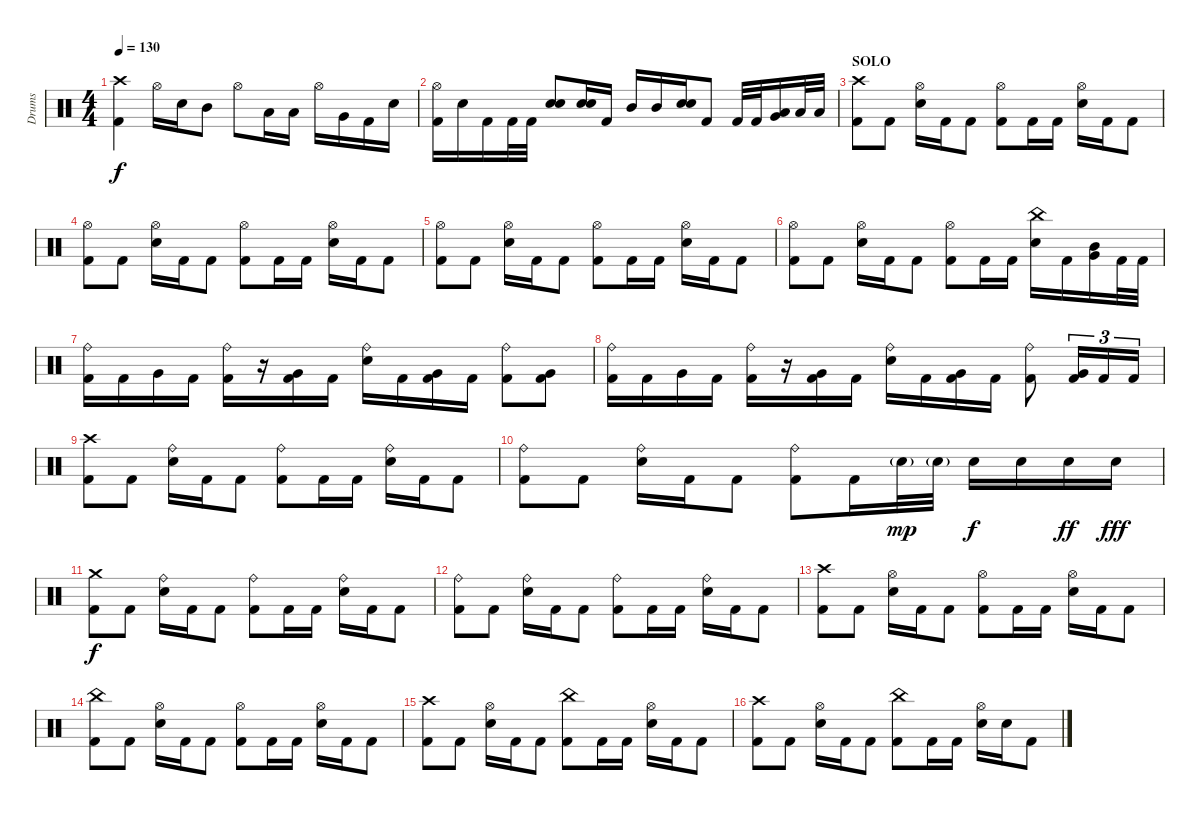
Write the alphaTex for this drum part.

\track ("Drums" "Drums") {instrument percussion}
\staff {score}
\articulation defaults
\ts (4 4)
\tempo 130
\clef neutral
\ks c
("Crash high (hit)" "Kick (hit) 2").4{dy f} "Hi-Hat (open)".16 "Electric Snare (hit)".16 "Mid Tom (hit)".8 "Hi-Hat (open)".8 "Low Tom (hit)".16 "Low Tom (hit)".16 "Hi-Hat (open)".16 "Very Low Tom (hit)".16 "Kick (hit) 2".16 "Electric Snare (hit)".16 |
("Hi-Hat (open)" "Kick (hit) 2").16 "Electric Snare (hit)".16 "Kick (hit) 2".16 "Kick (hit) 2".32 "Kick (hit) 2".32 ("Electric Snare (hit)" "Electric Snare (hit)").8{bd 120} ("Electric Snare (hit)" "Electric Snare (hit)").16{bd 120} "Kick (hit) 2".16 "Mid Tom (hit)".16 "Mid Tom (hit)".16 ("Electric Snare (hit)" "Electric Snare (hit)").16{bd 120} "Kick (hit) 2".8 "Kick (hit) 2".32 "Kick (hit) 2".32 ("Very Low Tom (hit)" "Low Tom (hit)").16{bd 120} "Low Floor Tom (hit)".32 "Low Floor Tom (hit)".32 |
\section ("" "SOLO")
("Crash high (hit)" "Kick (hit) 2").8 "Kick (hit) 2".8 ("Hi-Hat (open)" "Electric Snare (hit)").16 "Kick (hit) 2".16 "Kick (hit) 2".8 ("Hi-Hat (open)" "Kick (hit) 2").8 "Kick (hit) 2".16 "Kick (hit) 2".16 ("Hi-Hat (open)" "Electric Snare (hit)").16 "Kick (hit) 2".16 "Kick (hit) 2".8 |
("Hi-Hat (open)" "Kick (hit) 2").8 "Kick (hit) 2".8 ("Hi-Hat (open)" "Electric Snare (hit)").16 "Kick (hit) 2".16 "Kick (hit) 2".8 ("Hi-Hat (open)" "Kick (hit) 2").8 "Kick (hit) 2".16 "Kick (hit) 2".16 ("Hi-Hat (open)" "Electric Snare (hit)").16 "Kick (hit) 2".16 "Kick (hit) 2".8 |
("Hi-Hat (open)" "Kick (hit) 2").8 "Kick (hit) 2".8 ("Hi-Hat (open)" "Electric Snare (hit)").16 "Kick (hit) 2".16 "Kick (hit) 2".8 ("Hi-Hat (open)" "Kick (hit) 2").8 "Kick (hit) 2".16 "Kick (hit) 2".16 ("Hi-Hat (open)" "Electric Snare (hit)").16 "Kick (hit) 2".16 "Kick (hit) 2".8 |
("Hi-Hat (open)" "Kick (hit) 2").8 "Kick (hit) 2".8 ("Hi-Hat (open)" "Electric Snare (hit)").16 "Kick (hit) 2".16 "Kick (hit) 2".8 ("Hi-Hat (open)" "Kick (hit) 2").8 "Kick (hit) 2".16 "Kick (hit) 2".16 ("China (hit)" "Electric Snare (hit)").16 "Kick (hit) 2".16 ("Very Low Tom (hit)" "Mid Tom (hit)").16{bd 120} "Kick (hit) 2".32 "Kick (hit) 2".32 |
("Ride (bell)" "Kick (hit) 2").16 "Kick (hit) 2".16 "Very Low Tom (hit)".16 "Kick (hit) 2".16 ("Ride (bell)" "Kick (hit) 2").16 r.16 ("Very Low Tom (hit)" "Kick (hit) 2").16 "Kick (hit) 2".16 ("Ride (bell)" "Electric Snare (hit)").16 "Kick (hit) 2".16 ("Very Low Tom (hit)" "Kick (hit) 2").16 "Kick (hit) 2".16 ("Ride (bell)" "Kick (hit) 2").8 ("Very Low Tom (hit)" "Kick (hit) 2").8 |
("Ride (bell)" "Kick (hit) 2").16 "Kick (hit) 2".16 "Very Low Tom (hit)".16 "Kick (hit) 2".16 ("Ride (bell)" "Kick (hit) 2").16 r.16 ("Very Low Tom (hit)" "Kick (hit) 2").16 "Kick (hit) 2".16 ("Ride (bell)" "Electric Snare (hit)").16 "Kick (hit) 2".16 ("Very Low Tom (hit)" "Kick (hit) 2").16 "Kick (hit) 2".16 ("Ride (bell)" "Kick (hit) 2").8 ("Very Low Tom (hit)" "Kick (hit) 2").16{tu (3 2)} "Kick (hit) 2".16{tu (3 2)} "Kick (hit) 2".16{tu (3 2)} |
("Crash high (hit)" "Kick (hit) 2").8 "Kick (hit) 2".8 ("Ride (bell)" "Electric Snare (hit)").16 "Kick (hit) 2".16 "Kick (hit) 2".8 ("Ride (bell)" "Kick (hit) 2").8 "Kick (hit) 2".16 "Kick (hit) 2".16 ("Ride (bell)" "Electric Snare (hit)").16 "Kick (hit) 2".16 "Kick (hit) 2".8 |
("Ride (bell)" "Kick (hit) 2").8 "Kick (hit) 2".8 ("Ride (bell)" "Electric Snare (hit)").16 "Kick (hit) 2".16 "Kick (hit) 2".8 ("Ride (bell)" "Kick (hit) 2").8 "Kick (hit) 2".16 "Electric Snare (hit)"{g}.32{dy mp} "Electric Snare (hit)"{g}.32 "Electric Snare (hit)".16{dy f} "Electric Snare (hit)".16 "Electric Snare (hit)".16{dy ff} "Electric Snare (hit)".16{dy fff} |
("Crash medium (hit)" "Kick (hit) 2").8{dy f} "Kick (hit) 2".8 ("Ride (bell)" "Electric Snare (hit)").16 "Kick (hit) 2".16 "Kick (hit) 2".8 ("Ride (bell)" "Kick (hit) 2").8 "Kick (hit) 2".16 "Kick (hit) 2".16 ("Ride (bell)" "Electric Snare (hit)").16 "Kick (hit) 2".16 "Kick (hit) 2".8 |
("Ride (bell)" "Kick (hit) 2").8 "Kick (hit) 2".8 ("Ride (bell)" "Electric Snare (hit)").16 "Kick (hit) 2".16 "Kick (hit) 2".8 ("Ride (bell)" "Kick (hit) 2").8 "Kick (hit) 2".16 "Kick (hit) 2".16 ("Ride (bell)" "Electric Snare (hit)").16 "Kick (hit) 2".16 "Kick (hit) 2".8 |
("Crash high (hit)" "Kick (hit) 2").8 "Kick (hit) 2".8 ("Hi-Hat (open)" "Electric Snare (hit)").16 "Kick (hit) 2".16 "Kick (hit) 2".8 ("Hi-Hat (open)" "Kick (hit) 2").8 "Kick (hit) 2".16 "Kick (hit) 2".16 ("Hi-Hat (open)" "Electric Snare (hit)").16 "Kick (hit) 2".16 "Kick (hit) 2".8 |
("China (hit)" "Kick (hit) 2").8 "Kick (hit) 2".8 ("Hi-Hat (open)" "Electric Snare (hit)").16 "Kick (hit) 2".16 "Kick (hit) 2".8 ("Hi-Hat (open)" "Kick (hit) 2").8 "Kick (hit) 2".16 "Kick (hit) 2".16 ("Hi-Hat (open)" "Electric Snare (hit)").16 "Kick (hit) 2".16 "Kick (hit) 2".8 |
("Crash high (hit)" "Kick (hit) 2").8 "Kick (hit) 2".8 ("Hi-Hat (open)" "Electric Snare (hit)").16 "Kick (hit) 2".16 "Kick (hit) 2".8 ("China (hit)" "Kick (hit) 2").8 "Kick (hit) 2".16 "Kick (hit) 2".16 ("Hi-Hat (open)" "Electric Snare (hit)").16 "Kick (hit) 2".16 "Kick (hit) 2".8 |
("Crash high (hit)" "Kick (hit) 2").8 "Kick (hit) 2".8 ("Hi-Hat (open)" "Electric Snare (hit)").16 "Kick (hit) 2".16 "Kick (hit) 2".8 ("China (hit)" "Kick (hit) 2").8 "Kick (hit) 2".16 "Kick (hit) 2".16 ("Hi-Hat (open)" "Electric Snare (hit)").16 "Electric Snare (hit)".16 "Kick (hit) 2".8
